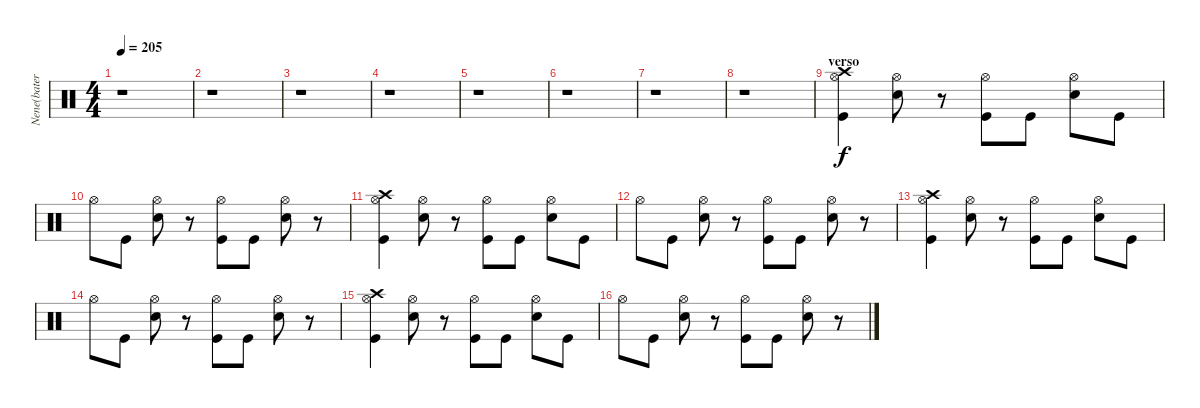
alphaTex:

\track ("Nene(batera)" "Nene(bater") {instrument percussion}
\staff {score}
\articulation defaults
\ts (4 4)
\tempo 205
\clef neutral
\ks c
r.1{dy f} |
r.1 |
r.1 |
r.1 |
r.1 |
r.1 |
r.1 |
r.1 |
\section ("" "verso")
("Crash high (hit)" "Kick (hit)" "Hi-Hat (open)").4 ("Electric Snare (hit)" "Hi-Hat (open)").8 r.8 ("Kick (hit)" "Hi-Hat (open)").8 "Kick (hit)".8 ("Electric Snare (hit)" "Hi-Hat (open)").8 "Kick (hit)".8 |
"Hi-Hat (open)".8 "Kick (hit)".8 ("Electric Snare (hit)" "Hi-Hat (open)").8 r.8 ("Kick (hit)" "Hi-Hat (open)").8 "Kick (hit)".8 ("Electric Snare (hit)" "Hi-Hat (open)").8 r.8 |
("Crash high (hit)" "Kick (hit)" "Hi-Hat (open)").4 ("Electric Snare (hit)" "Hi-Hat (open)").8 r.8 ("Kick (hit)" "Hi-Hat (open)").8 "Kick (hit)".8 ("Electric Snare (hit)" "Hi-Hat (open)").8 "Kick (hit)".8 |
"Hi-Hat (open)".8 "Kick (hit)".8 ("Electric Snare (hit)" "Hi-Hat (open)").8 r.8 ("Kick (hit)" "Hi-Hat (open)").8 "Kick (hit)".8 ("Electric Snare (hit)" "Hi-Hat (open)").8 r.8 |
("Crash high (hit)" "Kick (hit)" "Hi-Hat (open)").4 ("Electric Snare (hit)" "Hi-Hat (open)").8 r.8 ("Kick (hit)" "Hi-Hat (open)").8 "Kick (hit)".8 ("Electric Snare (hit)" "Hi-Hat (open)").8 "Kick (hit)".8 |
"Hi-Hat (open)".8 "Kick (hit)".8 ("Electric Snare (hit)" "Hi-Hat (open)").8 r.8 ("Kick (hit)" "Hi-Hat (open)").8 "Kick (hit)".8 ("Electric Snare (hit)" "Hi-Hat (open)").8 r.8 |
("Crash high (hit)" "Kick (hit)" "Hi-Hat (open)").4 ("Electric Snare (hit)" "Hi-Hat (open)").8 r.8 ("Kick (hit)" "Hi-Hat (open)").8 "Kick (hit)".8 ("Electric Snare (hit)" "Hi-Hat (open)").8 "Kick (hit)".8 |
"Hi-Hat (open)".8 "Kick (hit)".8 ("Electric Snare (hit)" "Hi-Hat (open)").8 r.8 ("Kick (hit)" "Hi-Hat (open)").8 "Kick (hit)".8 ("Electric Snare (hit)" "Hi-Hat (open)").8 r.8
